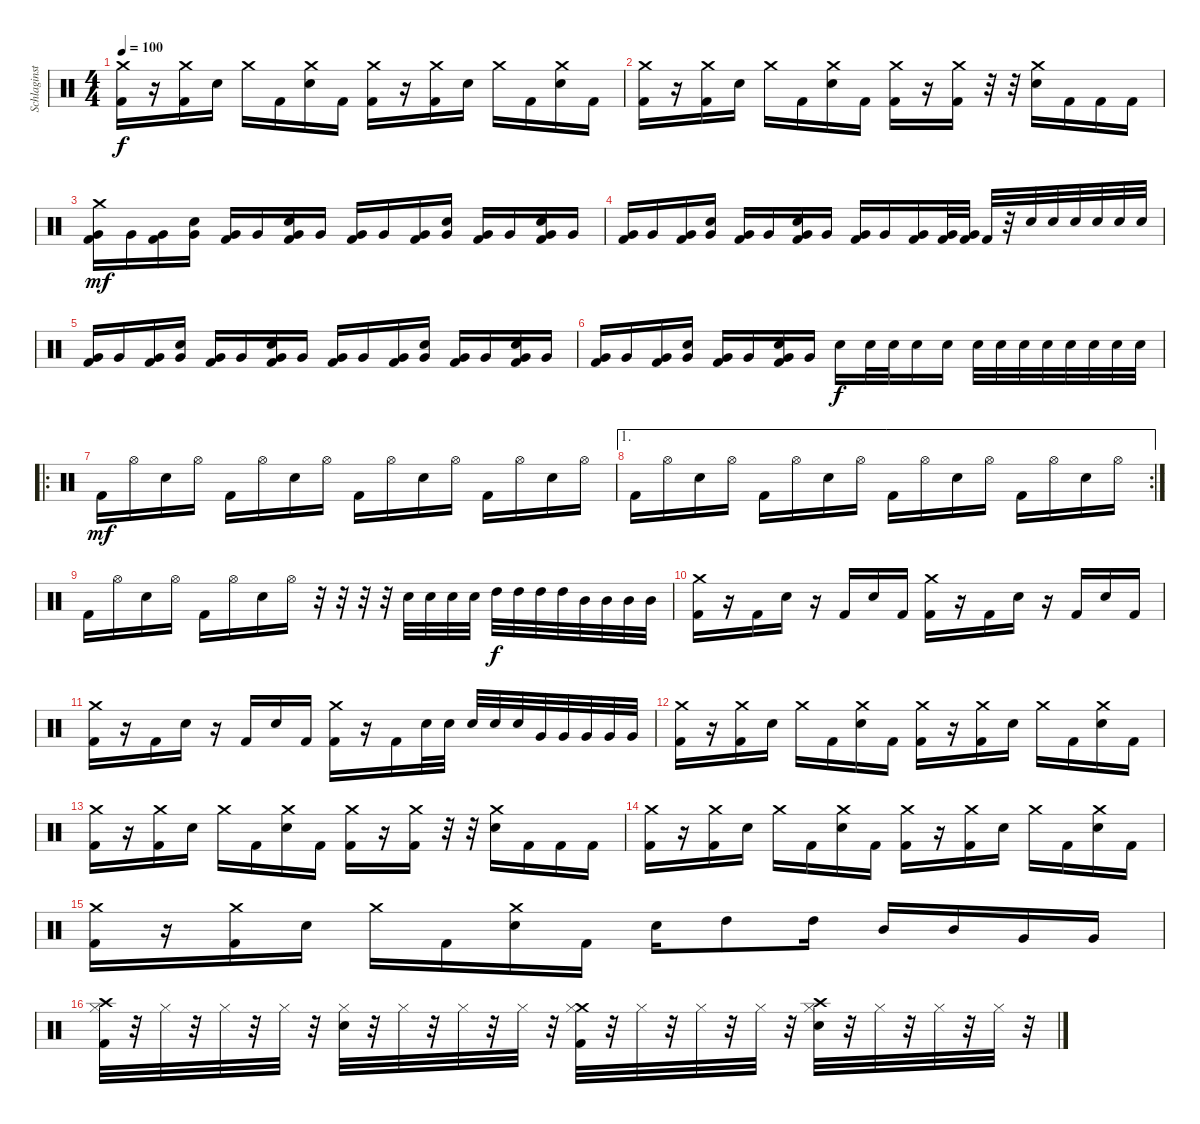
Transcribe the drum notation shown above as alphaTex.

\track ("Schlaginstrumente - Auswahl" "Schlaginst") {instrument percussion}
\staff {score}
\articulation defaults
\ts (4 4)
\tempo 100
\clef neutral
\ks c
("Crash medium (hit)" "Kick (hit) 2").16{dy f} r.16 ("Crash medium (hit)" "Kick (hit) 2").16 "Electric Snare (hit)".16 "Crash medium (hit)".16 "Kick (hit) 2".16 ("Crash medium (hit)" "Electric Snare (hit)").16 "Kick (hit) 2".16 ("Crash medium (hit)" "Kick (hit) 2").16 r.16 ("Crash medium (hit)" "Kick (hit) 2").16 "Electric Snare (hit)".16 "Crash medium (hit)".16 "Kick (hit) 2".16 ("Crash medium (hit)" "Electric Snare (hit)").16 "Kick (hit) 2".16 |
("Crash medium (hit)" "Kick (hit) 2").16 r.16 ("Crash medium (hit)" "Kick (hit) 2").16 "Electric Snare (hit)".16 "Crash medium (hit)".16 "Kick (hit) 2".16 ("Crash medium (hit)" "Electric Snare (hit)").16 "Kick (hit) 2".16 ("Crash medium (hit)" "Kick (hit) 2").16 r.16 ("Crash medium (hit)" "Kick (hit) 2").16 r.32 r.32 ("Crash medium (hit)" "Electric Snare (hit)").16 "Kick (hit) 2".16 "Kick (hit) 2".16 "Kick (hit) 2".16 |
("Very Low Tom (hit)" "Crash medium (hit)" "Kick (hit) 2").16{dy mf} "Very Low Tom (hit)".16 ("Very Low Tom (hit)" "Kick (hit) 2").16 ("Very Low Tom (hit)" "Electric Snare (hit)").16 ("Very Low Tom (hit)" "Kick (hit) 2").16 "Very Low Tom (hit)".16 ("Very Low Tom (hit)" "Electric Snare (hit)" "Kick (hit) 2").16 "Very Low Tom (hit)".16 ("Very Low Tom (hit)" "Kick (hit) 2").16 "Very Low Tom (hit)".16 ("Very Low Tom (hit)" "Kick (hit) 2").16 ("Very Low Tom (hit)" "Electric Snare (hit)").16 ("Very Low Tom (hit)" "Kick (hit) 2").16 "Very Low Tom (hit)".16 ("Very Low Tom (hit)" "Electric Snare (hit)" "Kick (hit) 2").16 "Very Low Tom (hit)".16 |
("Very Low Tom (hit)" "Kick (hit) 2").16 "Very Low Tom (hit)".16 ("Very Low Tom (hit)" "Kick (hit) 2").16 ("Very Low Tom (hit)" "Electric Snare (hit)").16 ("Very Low Tom (hit)" "Kick (hit) 2").16 "Very Low Tom (hit)".16 ("Very Low Tom (hit)" "Electric Snare (hit)" "Kick (hit) 2").16 "Very Low Tom (hit)".16 ("Very Low Tom (hit)" "Kick (hit) 2").16 "Very Low Tom (hit)".16 ("Very Low Tom (hit)" "Kick (hit) 2").16 ("Very Low Tom (hit)" "Kick (hit) 2").32 ("Very Low Tom (hit)" "Kick (hit) 2").32 "Kick (hit) 2".32 r.32 "Electric Snare (hit)".32 "Electric Snare (hit)".32 "Electric Snare (hit)".32 "Electric Snare (hit)".32 "Electric Snare (hit)".32 "Electric Snare (hit)".32 |
("Very Low Tom (hit)" "Kick (hit) 2").16 "Very Low Tom (hit)".16 ("Very Low Tom (hit)" "Kick (hit) 2").16 ("Very Low Tom (hit)" "Electric Snare (hit)").16 ("Very Low Tom (hit)" "Kick (hit) 2").16 "Very Low Tom (hit)".16 ("Very Low Tom (hit)" "Electric Snare (hit)" "Kick (hit) 2").16 "Very Low Tom (hit)".16 ("Very Low Tom (hit)" "Kick (hit) 2").16 "Very Low Tom (hit)".16 ("Very Low Tom (hit)" "Kick (hit) 2").16 ("Very Low Tom (hit)" "Electric Snare (hit)").16 ("Very Low Tom (hit)" "Kick (hit) 2").16 "Very Low Tom (hit)".16 ("Very Low Tom (hit)" "Electric Snare (hit)" "Kick (hit) 2").16 "Very Low Tom (hit)".16 |
("Very Low Tom (hit)" "Kick (hit) 2").16 "Very Low Tom (hit)".16 ("Very Low Tom (hit)" "Kick (hit) 2").16 ("Very Low Tom (hit)" "Electric Snare (hit)").16 ("Very Low Tom (hit)" "Kick (hit) 2").16 "Very Low Tom (hit)".16 ("Very Low Tom (hit)" "Electric Snare (hit)" "Kick (hit) 2").16 "Very Low Tom (hit)".16 "Electric Snare (hit)".16{dy f} "Electric Snare (hit)".32 "Electric Snare (hit)".32 "Electric Snare (hit)".16 "Electric Snare (hit)".16 "Electric Snare (hit)".32 "Electric Snare (hit)".32 "Electric Snare (hit)".32 "Electric Snare (hit)".32 "Electric Snare (hit)".32 "Electric Snare (hit)".32 "Electric Snare (hit)".32 "Electric Snare (hit)".32 |
\ro "Kick (hit) 2".16{dy mf} "Hi-Hat (open)".16 "Electric Snare (hit)".16 "Hi-Hat (open)".16 "Kick (hit) 2".16 "Hi-Hat (open)".16 "Electric Snare (hit)".16 "Hi-Hat (open)".16 "Kick (hit) 2".16 "Hi-Hat (open)".16 "Electric Snare (hit)".16 "Hi-Hat (open)".16 "Kick (hit) 2".16 "Hi-Hat (open)".16 "Electric Snare (hit)".16 "Hi-Hat (open)".16
|
\ae 1
\rc 2 "Kick (hit) 2".16 "Hi-Hat (open)".16 "Electric Snare (hit)".16 "Hi-Hat (open)".16 "Kick (hit) 2".16 "Hi-Hat (open)".16 "Electric Snare (hit)".16 "Hi-Hat (open)".16 "Kick (hit) 2".16 "Hi-Hat (open)".16 "Electric Snare (hit)".16 "Hi-Hat (open)".16 "Kick (hit) 2".16 "Hi-Hat (open)".16 "Electric Snare (hit)".16 "Hi-Hat (open)".16
|
"Kick (hit) 2".16 "Hi-Hat (open)".16 "Electric Snare (hit)".16 "Hi-Hat (open)".16 "Kick (hit) 2".16 "Hi-Hat (open)".16 "Electric Snare (hit)".16 "Hi-Hat (open)".16 r.32 r.32 r.32 r.32 "Electric Snare (hit)".32 "Electric Snare (hit)".32 "Electric Snare (hit)".32 "Electric Snare (hit)".32 "High Tom (hit)".32{dy f} "High Tom (hit)".32 "High Tom (hit)".32 "High Tom (hit)".32 "Mid Tom (hit)".32 "Mid Tom (hit)".32 "Mid Tom (hit)".32 "Mid Tom (hit)".32 |
("Crash medium (hit)" "Kick (hit) 2").16 r.16 "Kick (hit) 2".16 "Electric Snare (hit)".16 r.16 "Kick (hit) 2".16 "Electric Snare (hit)".16 "Kick (hit) 2".16 ("Crash medium (hit)" "Kick (hit) 2").16 r.16 "Kick (hit) 2".16 "Electric Snare (hit)".16 r.16 "Kick (hit) 2".16 "Electric Snare (hit)".16 "Kick (hit) 2".16 |
("Crash medium (hit)" "Kick (hit) 2").16 r.16 "Kick (hit) 2".16 "Electric Snare (hit)".16 r.16 "Kick (hit) 2".16 "Electric Snare (hit)".16 "Kick (hit) 2".16 ("Crash medium (hit)" "Kick (hit) 2").16 r.16 "Kick (hit) 2".16 "Electric Snare (hit)".32 "Electric Snare (hit)".32 "Electric Snare (hit)".32 "Electric Snare (hit)".32 "Electric Snare (hit)".32 "Very Low Tom (hit)".32 "Very Low Tom (hit)".32 "Very Low Tom (hit)".32 "Very Low Tom (hit)".32 "Very Low Tom (hit)".32 |
("Crash medium (hit)" "Kick (hit) 2").16 r.16 ("Crash medium (hit)" "Kick (hit) 2").16 "Electric Snare (hit)".16 "Crash medium (hit)".16 "Kick (hit) 2".16 ("Crash medium (hit)" "Electric Snare (hit)").16 "Kick (hit) 2".16 ("Crash medium (hit)" "Kick (hit) 2").16 r.16 ("Crash medium (hit)" "Kick (hit) 2").16 "Electric Snare (hit)".16 "Crash medium (hit)".16 "Kick (hit) 2".16 ("Crash medium (hit)" "Electric Snare (hit)").16 "Kick (hit) 2".16 |
("Crash medium (hit)" "Kick (hit) 2").16 r.16 ("Crash medium (hit)" "Kick (hit) 2").16 "Electric Snare (hit)".16 "Crash medium (hit)".16 "Kick (hit) 2".16 ("Crash medium (hit)" "Electric Snare (hit)").16 "Kick (hit) 2".16 ("Crash medium (hit)" "Kick (hit) 2").16 r.16 ("Crash medium (hit)" "Kick (hit) 2").16 r.32 r.32 ("Crash medium (hit)" "Electric Snare (hit)").16 "Kick (hit) 2".16 "Kick (hit) 2".16 "Kick (hit) 2".16 |
("Crash medium (hit)" "Kick (hit) 2").16 r.16 ("Crash medium (hit)" "Kick (hit) 2").16 "Electric Snare (hit)".16 "Crash medium (hit)".16 "Kick (hit) 2".16 ("Crash medium (hit)" "Electric Snare (hit)").16 "Kick (hit) 2".16 ("Crash medium (hit)" "Kick (hit) 2").16 r.16 ("Crash medium (hit)" "Kick (hit) 2").16 "Electric Snare (hit)".16 "Crash medium (hit)".16 "Kick (hit) 2".16 ("Crash medium (hit)" "Electric Snare (hit)").16 "Kick (hit) 2".16 |
("Crash medium (hit)" "Kick (hit) 2").16 r.16 ("Crash medium (hit)" "Kick (hit) 2").16 "Electric Snare (hit)".16 "Crash medium (hit)".16 "Kick (hit) 2".16 ("Crash medium (hit)" "Electric Snare (hit)").16 "Kick (hit) 2".16 "Electric Snare (hit)".16 "High Tom (hit)".8 "High Tom (hit)".16 "Mid Tom (hit)".16 "Mid Tom (hit)".16 "Very Low Tom (hit)".16 "Very Low Tom (hit)".16 |
("Crash high (hit)" "Hi-Hat (closed)" "Kick (hit) 2").32 r.32 "Hi-Hat (closed)".32 r.32 "Hi-Hat (closed)".32 r.32 "Hi-Hat (closed)".32 r.32 ("Hi-Hat (closed)" "Electric Snare (hit)").32 r.32 "Hi-Hat (closed)".32 r.32 "Hi-Hat (closed)".32 r.32 "Hi-Hat (closed)".32 r.32 ("Crash medium (hit)" "Hi-Hat (closed)" "Kick (hit) 2").32 r.32 "Hi-Hat (closed)".32 r.32 "Hi-Hat (closed)".32 r.32 "Hi-Hat (closed)".32 r.32 ("Crash high (hit)" "Hi-Hat (closed)" "Electric Snare (hit)").32 r.32 "Hi-Hat (closed)".32 r.32 "Hi-Hat (closed)".32 r.32 "Hi-Hat (closed)".32 r.32
